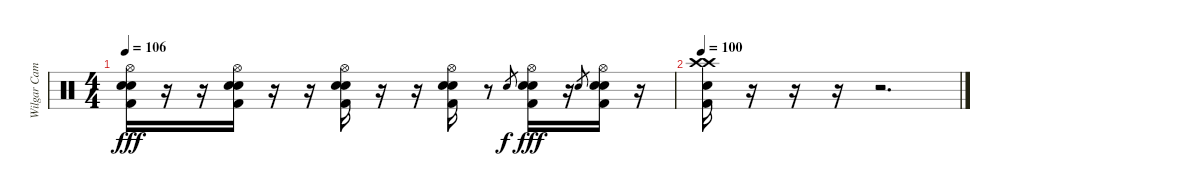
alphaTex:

\track ("Wilgar Campbell" "Wilgar Cam") {instrument percussion}
\staff {score}
\articulation defaults
\ts (4 4)
\tempo 106
\clef neutral
\ks c
("Hi-Hat (open)" "Snare (hit) 2" "Electric Snare (hit)" "Kick (hit) 2").16{dy fff} r.16 r.16 ("Hi-Hat (open)" "Snare (hit) 2" "Electric Snare (hit)" "Kick (hit) 2").16 r.16 r.16 ("Hi-Hat (open)" "Snare (hit) 2" "Electric Snare (hit)" "Kick (hit) 2").16 r.16 r.16 ("Hi-Hat (open)" "Snare (hit) 2" "Electric Snare (hit)" "Kick (hit) 2").16 r.8 "Electric Snare (hit)".8{gr dy f} ("Hi-Hat (open)" "Snare (hit) 2" "Electric Snare (hit)" "Kick (hit) 2").16{dy fff} r.16 "Electric Snare (hit)".8{gr} ("Hi-Hat (open)" "Snare (hit) 2" "Electric Snare (hit)" "Kick (hit) 2").16 r.16 |
\tempo 100
("Crash high (hit)" "Crash high (hit)" "Snare (hit) 2" "Kick (hit) 2").16 r.16 r.16 r.16 r.2{d}
